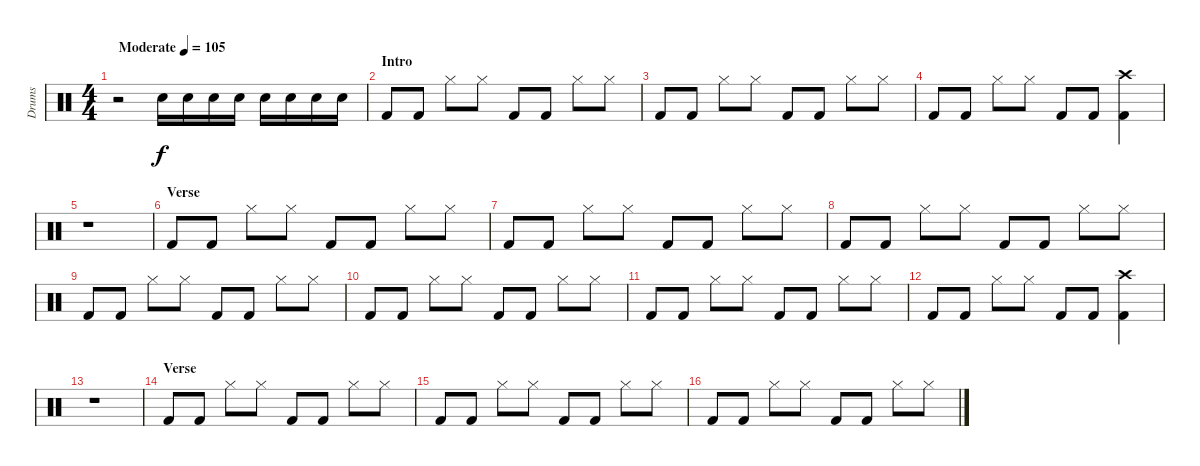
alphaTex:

\track ("Drums" "Drums") {instrument percussion}
\staff {score}
\articulation defaults
\ts (4 4)
\tempo (105 "Moderate")
\clef neutral
\ks c
r.2{dy f} "Snare (hit) 2".16 "Snare (hit) 2".16 "Snare (hit) 2".16 "Snare (hit) 2".16 "Snare (hit) 2".16 "Snare (hit) 2".16 "Snare (hit) 2".16 "Snare (hit) 2".16 |
\section ("" "Intro")
"Kick (hit) 2".8 "Kick (hit) 2".8 "Hi-Hat (closed)".8 "Hi-Hat (closed)".8 "Kick (hit) 2".8 "Kick (hit) 2".8 "Hi-Hat (closed)".8 "Hi-Hat (closed)".8 |
"Kick (hit) 2".8 "Kick (hit) 2".8 "Hi-Hat (closed)".8 "Hi-Hat (closed)".8 "Kick (hit) 2".8 "Kick (hit) 2".8 "Hi-Hat (closed)".8 "Hi-Hat (closed)".8 |
"Kick (hit) 2".8 "Kick (hit) 2".8 "Hi-Hat (closed)".8 "Hi-Hat (closed)".8 "Kick (hit) 2".8 "Kick (hit) 2".8 ("Crash high (hit)" "Kick (hit) 2").4 |
r.1 |
\section ("" "Verse")
"Kick (hit) 2".8 "Kick (hit) 2".8 "Hi-Hat (closed)".8 "Hi-Hat (closed)".8 "Kick (hit) 2".8 "Kick (hit) 2".8 "Hi-Hat (closed)".8 "Hi-Hat (closed)".8 |
"Kick (hit) 2".8 "Kick (hit) 2".8 "Hi-Hat (closed)".8 "Hi-Hat (closed)".8 "Kick (hit) 2".8 "Kick (hit) 2".8 "Hi-Hat (closed)".8 "Hi-Hat (closed)".8 |
"Kick (hit) 2".8 "Kick (hit) 2".8 "Hi-Hat (closed)".8 "Hi-Hat (closed)".8 "Kick (hit) 2".8 "Kick (hit) 2".8 "Hi-Hat (closed)".8 "Hi-Hat (closed)".8 |
"Kick (hit) 2".8 "Kick (hit) 2".8 "Hi-Hat (closed)".8 "Hi-Hat (closed)".8 "Kick (hit) 2".8 "Kick (hit) 2".8 "Hi-Hat (closed)".8 "Hi-Hat (closed)".8 |
"Kick (hit) 2".8 "Kick (hit) 2".8 "Hi-Hat (closed)".8 "Hi-Hat (closed)".8 "Kick (hit) 2".8 "Kick (hit) 2".8 "Hi-Hat (closed)".8 "Hi-Hat (closed)".8 |
"Kick (hit) 2".8 "Kick (hit) 2".8 "Hi-Hat (closed)".8 "Hi-Hat (closed)".8 "Kick (hit) 2".8 "Kick (hit) 2".8 "Hi-Hat (closed)".8 "Hi-Hat (closed)".8 |
"Kick (hit) 2".8 "Kick (hit) 2".8 "Hi-Hat (closed)".8 "Hi-Hat (closed)".8 "Kick (hit) 2".8 "Kick (hit) 2".8 ("Crash high (hit)" "Kick (hit) 2").4 |
r.1 |
\section ("" "Verse")
"Kick (hit) 2".8 "Kick (hit) 2".8 "Hi-Hat (closed)".8 "Hi-Hat (closed)".8 "Kick (hit) 2".8 "Kick (hit) 2".8 "Hi-Hat (closed)".8 "Hi-Hat (closed)".8 |
"Kick (hit) 2".8 "Kick (hit) 2".8 "Hi-Hat (closed)".8 "Hi-Hat (closed)".8 "Kick (hit) 2".8 "Kick (hit) 2".8 "Hi-Hat (closed)".8 "Hi-Hat (closed)".8 |
"Kick (hit) 2".8 "Kick (hit) 2".8 "Hi-Hat (closed)".8 "Hi-Hat (closed)".8 "Kick (hit) 2".8 "Kick (hit) 2".8 "Hi-Hat (closed)".8 "Hi-Hat (closed)".8
